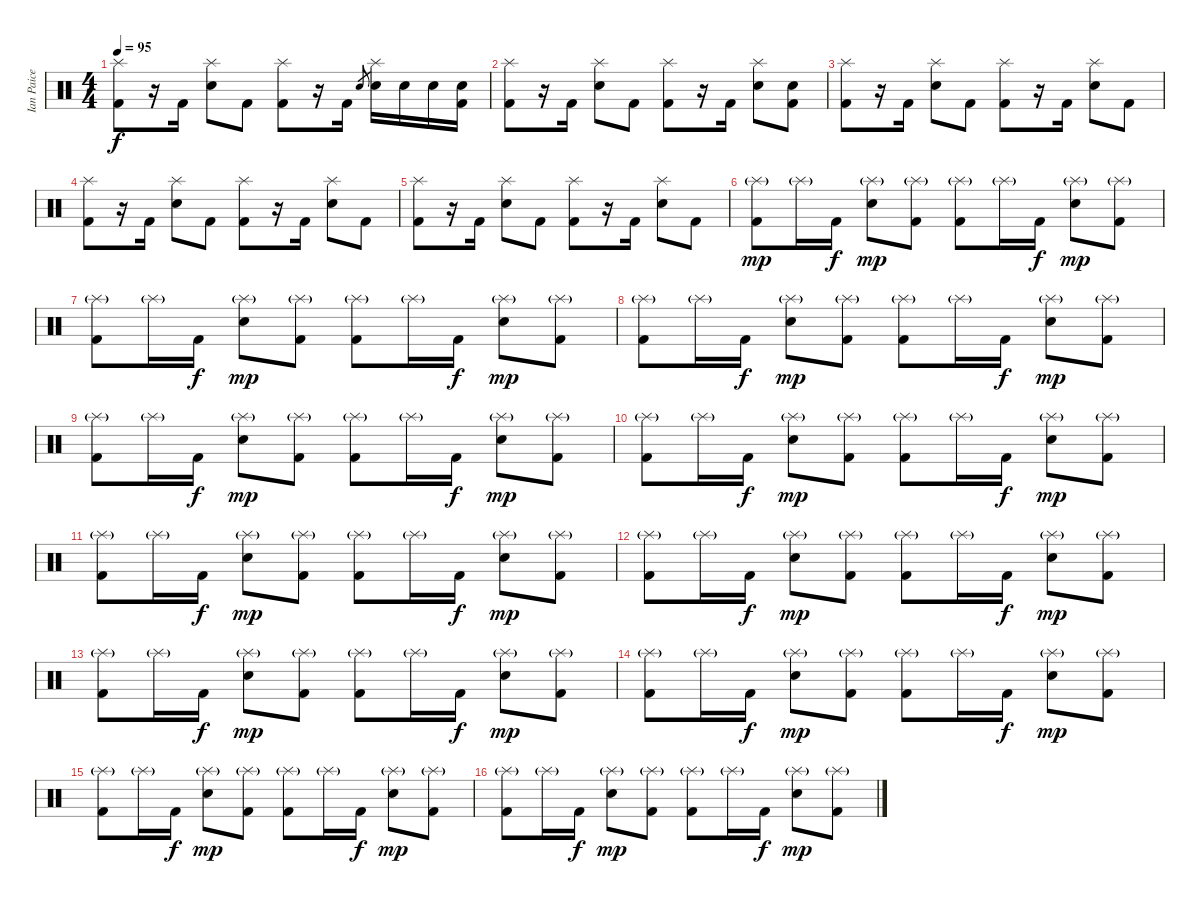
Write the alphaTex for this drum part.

\track ("Ian Paice" "Ian Paice") {instrument percussion}
\staff {score}
\articulation defaults
\ts (4 4)
\tempo 95
\clef neutral
\ks c
("Splash (hit)" "Kick (hit) 2").8{dy f} r.16 "Kick (hit) 2".16 ("Splash (hit)" "Snare (hit) 2").8 "Kick (hit) 2".8 ("Splash (hit)" "Kick (hit) 2").8 r.16 "Kick (hit) 2".16 "Snare (hit) 2".8{gr} ("Splash (hit)" "Snare (hit) 2").16 "Snare (hit) 2".16 "Snare (hit) 2".16 ("Snare (hit) 2" "Kick (hit) 2").16 |
("Splash (hit)" "Kick (hit) 2").8 r.16 "Kick (hit) 2".16 ("Splash (hit)" "Snare (hit) 2").8 "Kick (hit) 2".8 ("Splash (hit)" "Kick (hit) 2").8 r.16 "Kick (hit) 2".16 ("Splash (hit)" "Snare (hit) 2").8 ("Snare (hit) 2" "Kick (hit) 2").8 |
("Splash (hit)" "Kick (hit) 2").8 r.16 "Kick (hit) 2".16 ("Splash (hit)" "Snare (hit) 2").8 "Kick (hit) 2".8 ("Splash (hit)" "Kick (hit) 2").8 r.16 "Kick (hit) 2".16 ("Splash (hit)" "Snare (hit) 2").8 "Kick (hit) 2".8 |
("Splash (hit)" "Kick (hit) 2").8 r.16 "Kick (hit) 2".16 ("Splash (hit)" "Snare (hit) 2").8 "Kick (hit) 2".8 ("Splash (hit)" "Kick (hit) 2").8 r.16 "Kick (hit) 2".16 ("Splash (hit)" "Snare (hit) 2").8 "Kick (hit) 2".8 |
("Splash (hit)" "Kick (hit) 2").8 r.16 "Kick (hit) 2".16 ("Splash (hit)" "Snare (hit) 2").8 "Kick (hit) 2".8 ("Splash (hit)" "Kick (hit) 2").8 r.16 "Kick (hit) 2".16 ("Splash (hit)" "Snare (hit) 2").8 "Kick (hit) 2".8 |
("Splash (hit)"{g} "Kick (hit) 2").8{dy mp} "Splash (hit)"{g}.16 "Kick (hit) 2".16{dy f} ("Splash (hit)"{g} "Snare (hit) 2").8{dy mp} ("Splash (hit)"{g} "Kick (hit) 2").8 ("Splash (hit)"{g} "Kick (hit) 2").8 "Splash (hit)"{g}.16 "Kick (hit) 2".16{dy f} ("Splash (hit)"{g} "Snare (hit) 2").8{dy mp} ("Splash (hit)"{g} "Kick (hit) 2").8 |
("Splash (hit)"{g} "Kick (hit) 2").8 "Splash (hit)"{g}.16 "Kick (hit) 2".16{dy f} ("Splash (hit)"{g} "Snare (hit) 2").8{dy mp} ("Splash (hit)"{g} "Kick (hit) 2").8 ("Splash (hit)"{g} "Kick (hit) 2").8 "Splash (hit)"{g}.16 "Kick (hit) 2".16{dy f} ("Splash (hit)"{g} "Snare (hit) 2").8{dy mp} ("Splash (hit)"{g} "Kick (hit) 2").8 |
("Splash (hit)"{g} "Kick (hit) 2").8 "Splash (hit)"{g}.16 "Kick (hit) 2".16{dy f} ("Splash (hit)"{g} "Snare (hit) 2").8{dy mp} ("Splash (hit)"{g} "Kick (hit) 2").8 ("Splash (hit)"{g} "Kick (hit) 2").8 "Splash (hit)"{g}.16 "Kick (hit) 2".16{dy f} ("Splash (hit)"{g} "Snare (hit) 2").8{dy mp} ("Splash (hit)"{g} "Kick (hit) 2").8 |
("Splash (hit)"{g} "Kick (hit) 2").8 "Splash (hit)"{g}.16 "Kick (hit) 2".16{dy f} ("Splash (hit)"{g} "Snare (hit) 2").8{dy mp} ("Splash (hit)"{g} "Kick (hit) 2").8 ("Splash (hit)"{g} "Kick (hit) 2").8 "Splash (hit)"{g}.16 "Kick (hit) 2".16{dy f} ("Splash (hit)"{g} "Snare (hit) 2").8{dy mp} ("Splash (hit)"{g} "Kick (hit) 2").8 |
("Splash (hit)"{g} "Kick (hit) 2").8 "Splash (hit)"{g}.16 "Kick (hit) 2".16{dy f} ("Splash (hit)"{g} "Snare (hit) 2").8{dy mp} ("Splash (hit)"{g} "Kick (hit) 2").8 ("Splash (hit)"{g} "Kick (hit) 2").8 "Splash (hit)"{g}.16 "Kick (hit) 2".16{dy f} ("Splash (hit)"{g} "Snare (hit) 2").8{dy mp} ("Splash (hit)"{g} "Kick (hit) 2").8 |
("Splash (hit)"{g} "Kick (hit) 2").8 "Splash (hit)"{g}.16 "Kick (hit) 2".16{dy f} ("Splash (hit)"{g} "Snare (hit) 2").8{dy mp} ("Splash (hit)"{g} "Kick (hit) 2").8 ("Splash (hit)"{g} "Kick (hit) 2").8 "Splash (hit)"{g}.16 "Kick (hit) 2".16{dy f} ("Splash (hit)"{g} "Snare (hit) 2").8{dy mp} ("Splash (hit)"{g} "Kick (hit) 2").8 |
("Splash (hit)"{g} "Kick (hit) 2").8 "Splash (hit)"{g}.16 "Kick (hit) 2".16{dy f} ("Splash (hit)"{g} "Snare (hit) 2").8{dy mp} ("Splash (hit)"{g} "Kick (hit) 2").8 ("Splash (hit)"{g} "Kick (hit) 2").8 "Splash (hit)"{g}.16 "Kick (hit) 2".16{dy f} ("Splash (hit)"{g} "Snare (hit) 2").8{dy mp} ("Splash (hit)"{g} "Kick (hit) 2").8 |
("Splash (hit)"{g} "Kick (hit) 2").8 "Splash (hit)"{g}.16 "Kick (hit) 2".16{dy f} ("Splash (hit)"{g} "Snare (hit) 2").8{dy mp} ("Splash (hit)"{g} "Kick (hit) 2").8 ("Splash (hit)"{g} "Kick (hit) 2").8 "Splash (hit)"{g}.16 "Kick (hit) 2".16{dy f} ("Splash (hit)"{g} "Snare (hit) 2").8{dy mp} ("Splash (hit)"{g} "Kick (hit) 2").8 |
("Splash (hit)"{g} "Kick (hit) 2").8 "Splash (hit)"{g}.16 "Kick (hit) 2".16{dy f} ("Splash (hit)"{g} "Snare (hit) 2").8{dy mp} ("Splash (hit)"{g} "Kick (hit) 2").8 ("Splash (hit)"{g} "Kick (hit) 2").8 "Splash (hit)"{g}.16 "Kick (hit) 2".16{dy f} ("Splash (hit)"{g} "Snare (hit) 2").8{dy mp} ("Splash (hit)"{g} "Kick (hit) 2").8 |
("Splash (hit)"{g} "Kick (hit) 2").8 "Splash (hit)"{g}.16 "Kick (hit) 2".16{dy f} ("Splash (hit)"{g} "Snare (hit) 2").8{dy mp} ("Splash (hit)"{g} "Kick (hit) 2").8 ("Splash (hit)"{g} "Kick (hit) 2").8 "Splash (hit)"{g}.16 "Kick (hit) 2".16{dy f} ("Splash (hit)"{g} "Snare (hit) 2").8{dy mp} ("Splash (hit)"{g} "Kick (hit) 2").8 |
("Splash (hit)"{g} "Kick (hit) 2").8 "Splash (hit)"{g}.16 "Kick (hit) 2".16{dy f} ("Splash (hit)"{g} "Snare (hit) 2").8{dy mp} ("Splash (hit)"{g} "Kick (hit) 2").8 ("Splash (hit)"{g} "Kick (hit) 2").8 "Splash (hit)"{g}.16 "Kick (hit) 2".16{dy f} ("Splash (hit)"{g} "Snare (hit) 2").8{dy mp} ("Splash (hit)"{g} "Kick (hit) 2").8
